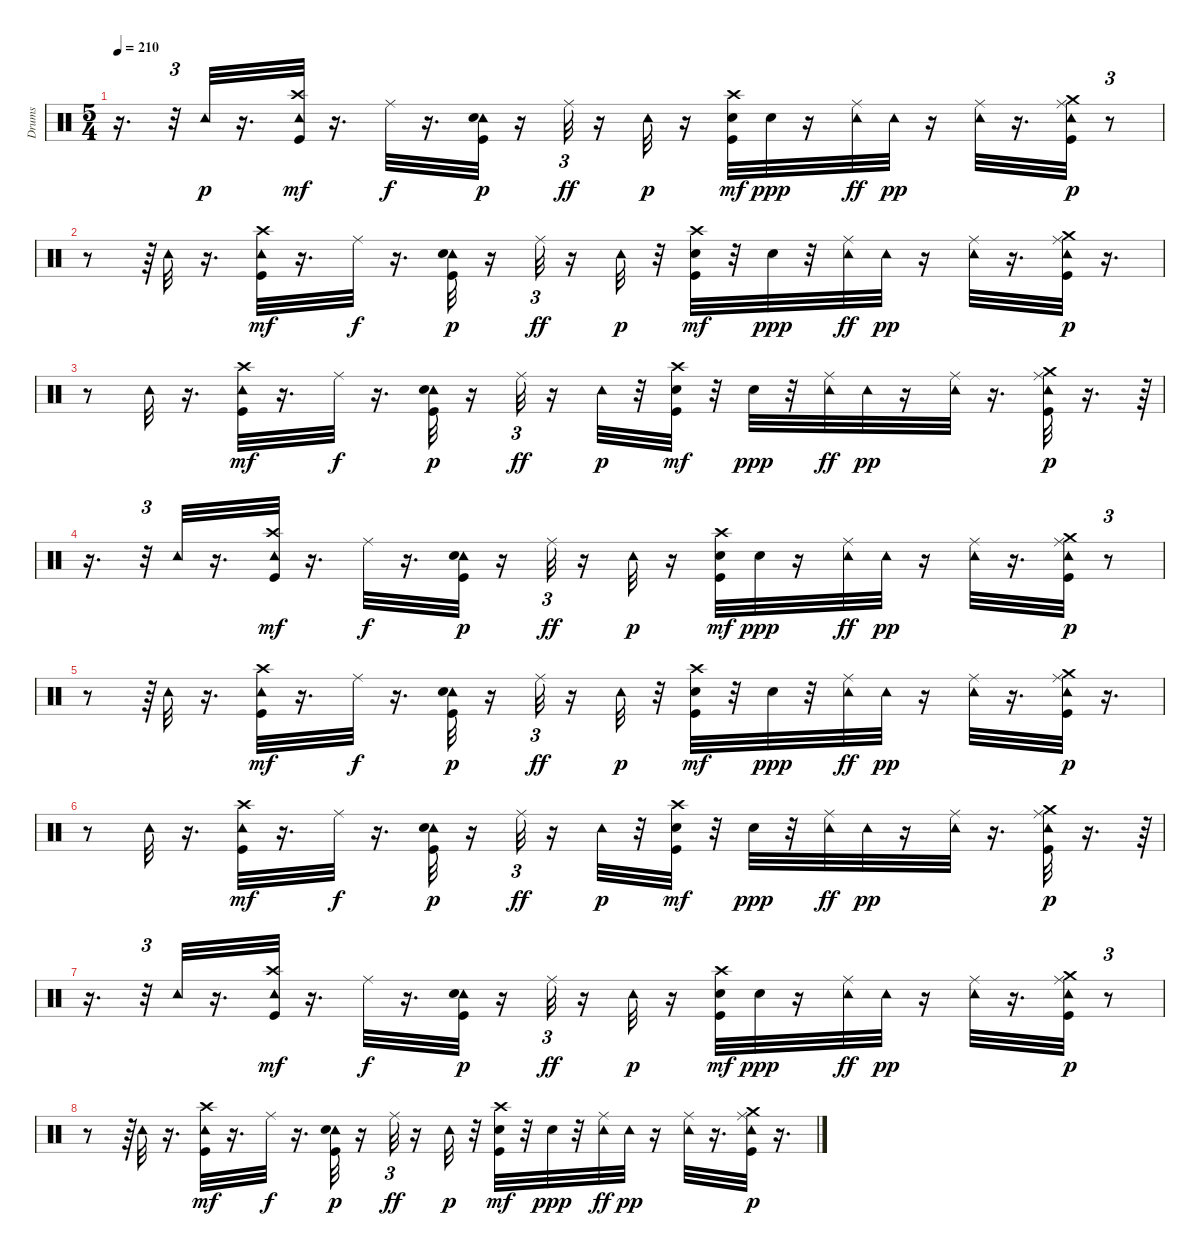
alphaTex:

\track ("Drums" "Drums") {instrument percussion}
\staff {score}
\articulation defaults
\ts (5 4)
\tempo 210
\clef neutral
\ks c
r.16{d dy p} r.32{tu (3 2)} "Tambourine (hit)".32 r.16{d} ("Tambourine (hit)" "Crash high (hit)" "Kick (hit)").32{dy mf} r.16{d} "Ride (middle)".32{dy f} r.16{d} ("Tambourine (hit)" "Snare (hit) 2" "Kick (hit)").32{dy p} r.16 "Ride (middle)".32{tu (3 2) dy ff} r.16 "Tambourine (hit)".32{dy p} r.16 ("Crash high (hit)" "Kick (hit)" "Snare (hit) 2").32{dy mf} "Snare (hit)".32{dy ppp} r.16 ("Tambourine (hit)" "Ride (middle)").32{dy ff} "Tambourine (hit)".32{dy pp} r.16 ("Ride (middle)" "Tambourine (hit)").32 r.16{d} ("Crash medium (hit)" "Tambourine (hit)" "Ride (middle)" "Kick (hit)").32{dy p} r.8{tu (3 2)} |
r.8 r.64{tu (3 2)} "Tambourine (hit)".32 r.16{d} ("Tambourine (hit)" "Crash high (hit)" "Kick (hit)").32{dy mf} r.16{d} "Ride (middle)".32{dy f} r.16{d} ("Tambourine (hit)" "Snare (hit) 2" "Kick (hit)").32{dy p} r.16 "Ride (middle)".32{tu (3 2) dy ff} r.16 "Tambourine (hit)".32{dy p} r.32 ("Crash high (hit)" "Kick (hit)" "Snare (hit) 2").32{dy mf} r.32 "Snare (hit)".32{dy ppp} r.32 ("Tambourine (hit)" "Ride (middle)").32{dy ff} "Tambourine (hit)".32{dy pp} r.16 ("Ride (middle)" "Tambourine (hit)").32 r.16{d} ("Crash medium (hit)" "Tambourine (hit)" "Ride (middle)" "Kick (hit)").32{dy p} r.16{d} |
r.8 "Tambourine (hit)".32 r.16{d} ("Tambourine (hit)" "Crash high (hit)" "Kick (hit)").32{dy mf} r.16{d} "Ride (middle)".32{dy f} r.16{d} ("Tambourine (hit)" "Snare (hit) 2" "Kick (hit)").32{dy p} r.16 "Ride (middle)".32{tu (3 2) dy ff} r.16 "Tambourine (hit)".32{dy p} r.32 ("Crash high (hit)" "Kick (hit)" "Snare (hit) 2").32{dy mf} r.32 "Snare (hit)".32{dy ppp} r.32 ("Tambourine (hit)" "Ride (middle)").32{dy ff} "Tambourine (hit)".32{dy pp} r.16 ("Ride (middle)" "Tambourine (hit)").32 r.16{d} ("Crash medium (hit)" "Tambourine (hit)" "Ride (middle)" "Kick (hit)").32{dy p} r.16{d} r.64{tu (3 2)} |
r.16{d} r.32{tu (3 2)} "Tambourine (hit)".32 r.16{d} ("Tambourine (hit)" "Crash high (hit)" "Kick (hit)").32{dy mf} r.16{d} "Ride (middle)".32{dy f} r.16{d} ("Tambourine (hit)" "Snare (hit) 2" "Kick (hit)").32{dy p} r.16 "Ride (middle)".32{tu (3 2) dy ff} r.16 "Tambourine (hit)".32{dy p} r.16 ("Crash high (hit)" "Kick (hit)" "Snare (hit) 2").32{dy mf} "Snare (hit)".32{dy ppp} r.16 ("Tambourine (hit)" "Ride (middle)").32{dy ff} "Tambourine (hit)".32{dy pp} r.16 ("Ride (middle)" "Tambourine (hit)").32 r.16{d} ("Crash medium (hit)" "Tambourine (hit)" "Ride (middle)" "Kick (hit)").32{dy p} r.8{tu (3 2)} |
r.8 r.64{tu (3 2)} "Tambourine (hit)".32 r.16{d} ("Tambourine (hit)" "Crash high (hit)" "Kick (hit)").32{dy mf} r.16{d} "Ride (middle)".32{dy f} r.16{d} ("Tambourine (hit)" "Snare (hit) 2" "Kick (hit)").32{dy p} r.16 "Ride (middle)".32{tu (3 2) dy ff} r.16 "Tambourine (hit)".32{dy p} r.32 ("Crash high (hit)" "Kick (hit)" "Snare (hit) 2").32{dy mf} r.32 "Snare (hit)".32{dy ppp} r.32 ("Tambourine (hit)" "Ride (middle)").32{dy ff} "Tambourine (hit)".32{dy pp} r.16 ("Ride (middle)" "Tambourine (hit)").32 r.16{d} ("Crash medium (hit)" "Tambourine (hit)" "Ride (middle)" "Kick (hit)").32{dy p} r.16{d} |
r.8 "Tambourine (hit)".32 r.16{d} ("Tambourine (hit)" "Crash high (hit)" "Kick (hit)").32{dy mf} r.16{d} "Ride (middle)".32{dy f} r.16{d} ("Tambourine (hit)" "Snare (hit) 2" "Kick (hit)").32{dy p} r.16 "Ride (middle)".32{tu (3 2) dy ff} r.16 "Tambourine (hit)".32{dy p} r.32 ("Crash high (hit)" "Kick (hit)" "Snare (hit) 2").32{dy mf} r.32 "Snare (hit)".32{dy ppp} r.32 ("Tambourine (hit)" "Ride (middle)").32{dy ff} "Tambourine (hit)".32{dy pp} r.16 ("Ride (middle)" "Tambourine (hit)").32 r.16{d} ("Crash medium (hit)" "Tambourine (hit)" "Ride (middle)" "Kick (hit)").32{dy p} r.16{d} r.64{tu (3 2)} |
r.16{d} r.32{tu (3 2)} "Tambourine (hit)".32 r.16{d} ("Tambourine (hit)" "Crash high (hit)" "Kick (hit)").32{dy mf} r.16{d} "Ride (middle)".32{dy f} r.16{d} ("Tambourine (hit)" "Snare (hit) 2" "Kick (hit)").32{dy p} r.16 "Ride (middle)".32{tu (3 2) dy ff} r.16 "Tambourine (hit)".32{dy p} r.16 ("Crash high (hit)" "Kick (hit)" "Snare (hit) 2").32{dy mf} "Snare (hit)".32{dy ppp} r.16 ("Tambourine (hit)" "Ride (middle)").32{dy ff} "Tambourine (hit)".32{dy pp} r.16 ("Ride (middle)" "Tambourine (hit)").32 r.16{d} ("Crash medium (hit)" "Tambourine (hit)" "Ride (middle)" "Kick (hit)").32{dy p} r.8{tu (3 2)} |
r.8 r.64{tu (3 2)} "Tambourine (hit)".32 r.16{d} ("Tambourine (hit)" "Crash high (hit)" "Kick (hit)").32{dy mf} r.16{d} "Ride (middle)".32{dy f} r.16{d} ("Tambourine (hit)" "Snare (hit) 2" "Kick (hit)").32{dy p} r.16 "Ride (middle)".32{tu (3 2) dy ff} r.16 "Tambourine (hit)".32{dy p} r.32 ("Crash high (hit)" "Kick (hit)" "Snare (hit) 2").32{dy mf} r.32 "Snare (hit)".32{dy ppp} r.32 ("Tambourine (hit)" "Ride (middle)").32{dy ff} "Tambourine (hit)".32{dy pp} r.16 ("Ride (middle)" "Tambourine (hit)").32 r.16{d} ("Crash medium (hit)" "Tambourine (hit)" "Ride (middle)" "Kick (hit)").32{dy p} r.16{d}
